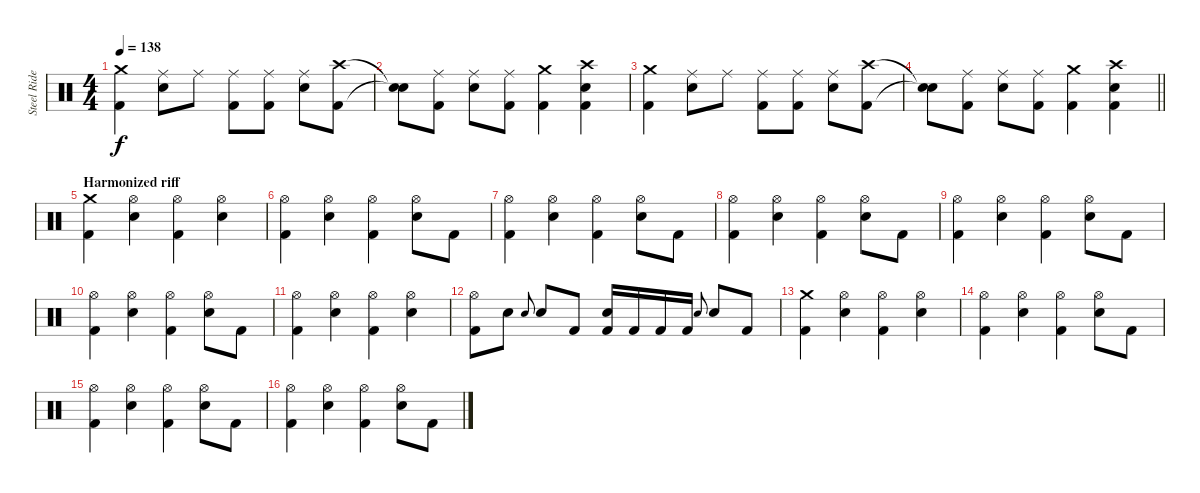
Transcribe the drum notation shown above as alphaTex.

\track ("Steel Rider" "Steel Ride") {instrument percussion}
\staff {score}
\articulation defaults
\ts (4 4)
\tempo 138
\clef neutral
\ks c
("Crash medium (hit)" "Kick (hit) 2").4{dy f} ("Ride (middle)" "Electric Snare (hit)").8 "Ride (middle)".8 ("Ride (middle)" "Kick (hit) 2").8 ("Ride (middle)" "Kick (hit) 2").8 ("Ride (middle)" "Electric Snare (hit)").8 ("Crash high (hit)" "Kick (hit) 2").8 |
("Snare (hit)"{t} "Snare (hit)"{t}).8 ("Ride (middle)" "Kick (hit) 2").8 ("Ride (middle)" "Electric Snare (hit)").8 ("Ride (middle)" "Kick (hit) 2").8 ("Crash medium (hit)" "Kick (hit) 2").4 ("Crash high (hit)" "Electric Snare (hit)" "Kick (hit) 2").4 |
("Crash medium (hit)" "Kick (hit) 2").4 ("Ride (middle)" "Electric Snare (hit)").8 "Ride (middle)".8 ("Ride (middle)" "Kick (hit) 2").8 ("Ride (middle)" "Kick (hit) 2").8 ("Ride (middle)" "Electric Snare (hit)").8 ("Crash high (hit)" "Kick (hit) 2").8 |
\barLineRight lightlight
("Snare (hit)"{t} "Snare (hit)"{t}).8 ("Ride (middle)" "Kick (hit) 2").8 ("Ride (middle)" "Electric Snare (hit)").8 ("Ride (middle)" "Kick (hit) 2").8 ("Crash medium (hit)" "Kick (hit) 2").4 ("Crash high (hit)" "Electric Snare (hit)" "Kick (hit) 2").4 |
\section ("" "Harmonized riff")
("Crash medium (hit)" "Kick (hit) 2").4 ("Hi-Hat (open)" "Electric Snare (hit)").4 ("Hi-Hat (open)" "Kick (hit) 2").4 ("Hi-Hat (open)" "Electric Snare (hit)").4 |
("Hi-Hat (open)" "Kick (hit) 2").4 ("Hi-Hat (open)" "Electric Snare (hit)").4 ("Hi-Hat (open)" "Kick (hit) 2").4 ("Hi-Hat (open)" "Electric Snare (hit)").8 "Kick (hit) 2".8 |
("Hi-Hat (open)" "Kick (hit) 2").4 ("Hi-Hat (open)" "Electric Snare (hit)").4 ("Hi-Hat (open)" "Kick (hit) 2").4 ("Hi-Hat (open)" "Electric Snare (hit)").8 "Kick (hit) 2".8 |
("Hi-Hat (open)" "Kick (hit) 2").4 ("Hi-Hat (open)" "Electric Snare (hit)").4 ("Hi-Hat (open)" "Kick (hit) 2").4 ("Hi-Hat (open)" "Electric Snare (hit)").8 "Kick (hit) 2".8 |
("Hi-Hat (open)" "Kick (hit) 2").4 ("Hi-Hat (open)" "Electric Snare (hit)").4 ("Hi-Hat (open)" "Kick (hit) 2").4 ("Hi-Hat (open)" "Electric Snare (hit)").8 "Kick (hit) 2".8 |
("Hi-Hat (open)" "Kick (hit) 2").4 ("Hi-Hat (open)" "Electric Snare (hit)").4 ("Hi-Hat (open)" "Kick (hit) 2").4 ("Hi-Hat (open)" "Electric Snare (hit)").8 "Kick (hit) 2".8 |
("Hi-Hat (open)" "Kick (hit) 2").4 ("Hi-Hat (open)" "Electric Snare (hit)").4 ("Hi-Hat (open)" "Kick (hit) 2").4 ("Hi-Hat (open)" "Electric Snare (hit)").4 |
("Hi-Hat (open)" "Kick (hit) 2").8 "Electric Snare (hit)".8 "Electric Snare (hit)".8{gr onbeat} "Electric Snare (hit)".8 "Kick (hit) 2".8 ("Electric Snare (hit)" "Kick (hit) 2").16 "Kick (hit) 2".16 "Kick (hit) 2".16 "Kick (hit) 2".16 "Electric Snare (hit)".8{gr onbeat} "Electric Snare (hit)".8 "Kick (hit) 2".8 |
("Crash medium (hit)" "Kick (hit) 2").4 ("Hi-Hat (open)" "Electric Snare (hit)").4 ("Hi-Hat (open)" "Kick (hit) 2").4 ("Hi-Hat (open)" "Electric Snare (hit)").4 |
("Hi-Hat (open)" "Kick (hit) 2").4 ("Hi-Hat (open)" "Electric Snare (hit)").4 ("Hi-Hat (open)" "Kick (hit) 2").4 ("Hi-Hat (open)" "Electric Snare (hit)").8 "Kick (hit) 2".8 |
("Hi-Hat (open)" "Kick (hit) 2").4 ("Hi-Hat (open)" "Electric Snare (hit)").4 ("Hi-Hat (open)" "Kick (hit) 2").4 ("Hi-Hat (open)" "Electric Snare (hit)").8 "Kick (hit) 2".8 |
("Hi-Hat (open)" "Kick (hit) 2").4 ("Hi-Hat (open)" "Electric Snare (hit)").4 ("Hi-Hat (open)" "Kick (hit) 2").4 ("Hi-Hat (open)" "Electric Snare (hit)").8 "Kick (hit) 2".8
